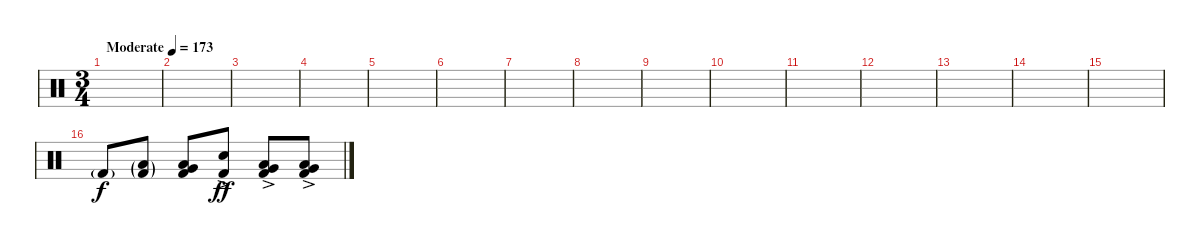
\track (" " " ") {instrument percussion}
\staff {score}
\articulation defaults
\ts (3 4)
\tempo (173 "Moderate")
\clef neutral
\ks c
|
|
|
|
|
|
|
|
|
|
|
|
|
|
|
"Kick (hit) 2"{g}.8 ("Low Floor Tom (hit)"{g} "Kick (hit) 2"{g}).8 ("Very Low Tom (hit)" "Low Floor Tom (hit)" "Kick (hit) 2").8{dy f} ("Electric Snare (hit)"{ac} "Kick (hit) 2"{ac}).8{dy ff} ("Very Low Tom (hit)"{ac} "Low Floor Tom (hit)"{ac} "Kick (hit) 2"{ac}).8 ("Very Low Tom (hit)"{ac} "Low Floor Tom (hit)"{ac} "Kick (hit) 2"{ac}).8
